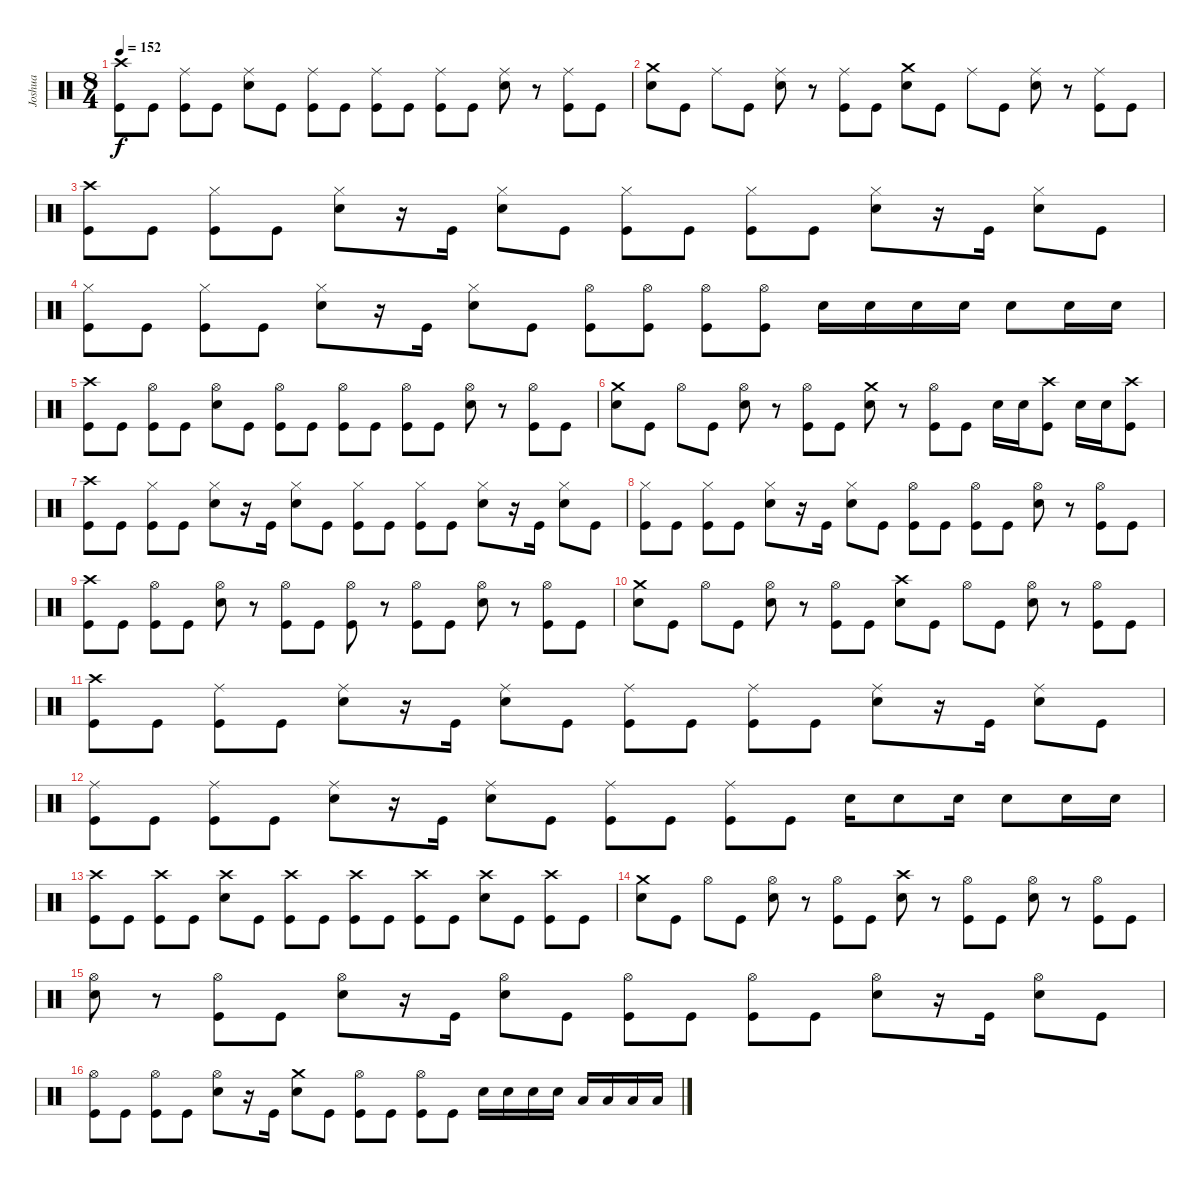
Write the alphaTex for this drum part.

\track ("Joshua" "Joshua") {instrument percussion}
\staff {score}
\articulation defaults
\ts (8 4)
\tempo 152
\clef neutral
\ks c
("Crash high (hit)" "Kick (hit)").8{dy f} "Kick (hit)".8 ("Ride (middle)" "Kick (hit)").8 "Kick (hit)".8 ("Ride (middle)" "Electric Snare (hit)").8 "Kick (hit)".8 ("Ride (middle)" "Kick (hit)").8 "Kick (hit)".8 ("Ride (middle)" "Kick (hit)").8 "Kick (hit)".8 ("Ride (middle)" "Kick (hit)").8 "Kick (hit)".8 ("Ride (middle)" "Electric Snare (hit)").8 r.8 ("Ride (middle)" "Kick (hit)").8 "Kick (hit)".8 |
("Crash medium (hit)" "Electric Snare (hit)").8 "Kick (hit)".8 "Ride (middle)".8 "Kick (hit)".8 ("Ride (middle)" "Electric Snare (hit)").8 r.8 ("Ride (middle)" "Kick (hit)").8 "Kick (hit)".8 ("Crash medium (hit)" "Electric Snare (hit)").8 "Kick (hit)".8 "Ride (middle)".8 "Kick (hit)".8 ("Ride (middle)" "Electric Snare (hit)").8 r.8 ("Ride (middle)" "Kick (hit)").8 "Kick (hit)".8 |
("Crash high (hit)" "Kick (hit)").8 "Kick (hit)".8 ("Hi-Hat (closed)" "Kick (hit)").8 "Kick (hit)".8 ("Hi-Hat (closed)" "Electric Snare (hit)").8 r.16 "Kick (hit)".16 ("Hi-Hat (closed)" "Electric Snare (hit)").8 "Kick (hit)".8 ("Hi-Hat (closed)" "Kick (hit)").8 "Kick (hit)".8 ("Hi-Hat (closed)" "Kick (hit)").8 "Kick (hit)".8 ("Hi-Hat (closed)" "Electric Snare (hit)").8 r.16 "Kick (hit)".16 ("Hi-Hat (closed)" "Electric Snare (hit)").8 "Kick (hit)".8 |
("Hi-Hat (closed)" "Kick (hit)").8 "Kick (hit)".8 ("Hi-Hat (closed)" "Kick (hit)").8 "Kick (hit)".8 ("Hi-Hat (closed)" "Electric Snare (hit)").8 r.16 "Kick (hit)".16 ("Hi-Hat (closed)" "Electric Snare (hit)").8 "Kick (hit)".8 ("Hi-Hat (open)" "Kick (hit)").8 ("Hi-Hat (open)" "Kick (hit)").8 ("Hi-Hat (open)" "Kick (hit)").8 ("Hi-Hat (open)" "Kick (hit)").8 "Electric Snare (hit)".16 "Electric Snare (hit)".16 "Electric Snare (hit)".16 "Electric Snare (hit)".16 "Electric Snare (hit)".8 "Electric Snare (hit)".16 "Electric Snare (hit)".16 |
("Crash high (hit)" "Kick (hit)").8 "Kick (hit)".8 ("Hi-Hat (open)" "Kick (hit)").8 "Kick (hit)".8 ("Hi-Hat (open)" "Electric Snare (hit)").8 "Kick (hit)".8 ("Hi-Hat (open)" "Kick (hit)").8 "Kick (hit)".8 ("Hi-Hat (open)" "Kick (hit)").8 "Kick (hit)".8 ("Hi-Hat (open)" "Kick (hit)").8 "Kick (hit)".8 ("Hi-Hat (open)" "Electric Snare (hit)").8 r.8 ("Hi-Hat (open)" "Kick (hit)").8 "Kick (hit)".8 |
("Crash medium (hit)" "Electric Snare (hit)").8 "Kick (hit)".8 "Hi-Hat (open)".8 "Kick (hit)".8 ("Hi-Hat (open)" "Electric Snare (hit)").8 r.8 ("Hi-Hat (open)" "Kick (hit)").8 "Kick (hit)".8 ("Crash medium (hit)" "Electric Snare (hit)").8 r.8 ("Hi-Hat (open)" "Kick (hit)").8 "Kick (hit)".8 "Electric Snare (hit)".16 "Electric Snare (hit)".16 ("Crash high (hit)" "Kick (hit)").8 "Electric Snare (hit)".16 "Electric Snare (hit)".16 ("Crash high (hit)" "Kick (hit)").8 |
("Crash high (hit)" "Kick (hit)").8 "Kick (hit)".8 ("Hi-Hat (closed)" "Kick (hit)").8 "Kick (hit)".8 ("Hi-Hat (closed)" "Electric Snare (hit)").8 r.16 "Kick (hit)".16 ("Hi-Hat (closed)" "Electric Snare (hit)").8 "Kick (hit)".8 ("Hi-Hat (closed)" "Kick (hit)").8 "Kick (hit)".8 ("Hi-Hat (closed)" "Kick (hit)").8 "Kick (hit)".8 ("Hi-Hat (closed)" "Electric Snare (hit)").8 r.16 "Kick (hit)".16 ("Hi-Hat (closed)" "Electric Snare (hit)").8 "Kick (hit)".8 |
("Hi-Hat (closed)" "Kick (hit)").8 "Kick (hit)".8 ("Hi-Hat (closed)" "Kick (hit)").8 "Kick (hit)".8 ("Hi-Hat (closed)" "Electric Snare (hit)").8 r.16 "Kick (hit)".16 ("Hi-Hat (closed)" "Electric Snare (hit)").8 "Kick (hit)".8 ("Hi-Hat (open)" "Kick (hit)").8 "Kick (hit)".8 ("Hi-Hat (open)" "Kick (hit)").8 "Kick (hit)".8 ("Hi-Hat (open)" "Electric Snare (hit)").8 r.8 ("Hi-Hat (open)" "Kick (hit)").8 "Kick (hit)".8 |
("Crash high (hit)" "Kick (hit)").8 "Kick (hit)".8 ("Hi-Hat (open)" "Kick (hit)").8 "Kick (hit)".8 ("Hi-Hat (open)" "Electric Snare (hit)").8 r.8 ("Hi-Hat (open)" "Kick (hit)").8 "Kick (hit)".8 ("Hi-Hat (open)" "Kick (hit)").8 r.8 ("Hi-Hat (open)" "Kick (hit)").8 "Kick (hit)".8 ("Hi-Hat (open)" "Electric Snare (hit)").8 r.8 ("Hi-Hat (open)" "Kick (hit)").8 "Kick (hit)".8 |
("Crash medium (hit)" "Electric Snare (hit)").8 "Kick (hit)".8 "Hi-Hat (open)".8 "Kick (hit)".8 ("Hi-Hat (open)" "Electric Snare (hit)").8 r.8 ("Hi-Hat (open)" "Kick (hit)").8 "Kick (hit)".8 ("Crash high (hit)" "Electric Snare (hit)").8 "Kick (hit)".8 "Hi-Hat (open)".8 "Kick (hit)".8 ("Hi-Hat (open)" "Electric Snare (hit)").8 r.8 ("Hi-Hat (open)" "Kick (hit)").8 "Kick (hit)".8 |
("Crash high (hit)" "Kick (hit)").8 "Kick (hit)".8 ("Ride (middle)" "Kick (hit)").8 "Kick (hit)".8 ("Ride (middle)" "Electric Snare (hit)").8 r.16 "Kick (hit)".16 ("Ride (middle)" "Electric Snare (hit)").8 "Kick (hit)".8 ("Ride (middle)" "Kick (hit)").8 "Kick (hit)".8 ("Ride (middle)" "Kick (hit)").8 "Kick (hit)".8 ("Ride (middle)" "Electric Snare (hit)").8 r.16 "Kick (hit)".16 ("Ride (middle)" "Electric Snare (hit)").8 "Kick (hit)".8 |
("Ride (middle)" "Kick (hit)").8 "Kick (hit)".8 ("Ride (middle)" "Kick (hit)").8 "Kick (hit)".8 ("Ride (middle)" "Electric Snare (hit)").8 r.16 "Kick (hit)".16 ("Ride (middle)" "Electric Snare (hit)").8 "Kick (hit)".8 ("Ride (middle)" "Kick (hit)").8 "Kick (hit)".8 ("Ride (middle)" "Kick (hit)").8 "Kick (hit)".8 "Electric Snare (hit)".16 "Electric Snare (hit)".8 "Electric Snare (hit)".16 "Electric Snare (hit)".8 "Electric Snare (hit)".16 "Electric Snare (hit)".16 |
("Crash high (hit)" "Kick (hit)").8 "Kick (hit)".8 ("Crash high (hit)" "Kick (hit)").8 "Kick (hit)".8 ("Crash high (hit)" "Electric Snare (hit)").8 "Kick (hit)".8 ("Crash high (hit)" "Kick (hit)").8 "Kick (hit)".8 ("Crash high (hit)" "Kick (hit)").8 "Kick (hit)".8 ("Crash high (hit)" "Kick (hit)").8 "Kick (hit)".8 ("Crash high (hit)" "Electric Snare (hit)").8 "Kick (hit)".8 ("Crash high (hit)" "Kick (hit)").8 "Kick (hit)".8 |
("Crash medium (hit)" "Electric Snare (hit)").8 "Kick (hit)".8 "Hi-Hat (open)".8 "Kick (hit)".8 ("Hi-Hat (open)" "Electric Snare (hit)").8 r.8 ("Hi-Hat (open)" "Kick (hit)").8 "Kick (hit)".8 ("Crash high (hit)" "Electric Snare (hit)").8 r.8 ("Hi-Hat (open)" "Kick (hit)").8 "Kick (hit)".8 ("Hi-Hat (open)" "Electric Snare (hit)").8 r.8 ("Hi-Hat (open)" "Kick (hit)").8 "Kick (hit)".8 |
("Hi-Hat (open)" "Electric Snare (hit)").8 r.8 ("Hi-Hat (open)" "Kick (hit)").8 "Kick (hit)".8 ("Hi-Hat (open)" "Electric Snare (hit)").8 r.16 "Kick (hit)".16 ("Hi-Hat (open)" "Electric Snare (hit)").8 "Kick (hit)".8 ("Hi-Hat (open)" "Kick (hit)").8 "Kick (hit)".8 ("Hi-Hat (open)" "Kick (hit)").8 "Kick (hit)".8 ("Hi-Hat (open)" "Electric Snare (hit)").8 r.16 "Kick (hit)".16 ("Hi-Hat (open)" "Electric Snare (hit)").8 "Kick (hit)".8 |
("Hi-Hat (open)" "Kick (hit)").8 "Kick (hit)".8 ("Hi-Hat (open)" "Kick (hit)").8 "Kick (hit)".8 ("Hi-Hat (open)" "Electric Snare (hit)").8 r.16 "Kick (hit)".16 ("Crash medium (hit)" "Electric Snare (hit)").8 "Kick (hit)".8 ("Hi-Hat (open)" "Kick (hit)").8 "Kick (hit)".8 ("Hi-Hat (open)" "Kick (hit)").8 "Kick (hit)".8 "Electric Snare (hit)".16 "Electric Snare (hit)".16 "Electric Snare (hit)".16 "Electric Snare (hit)".16 "Low Tom (hit)".16 "Low Tom (hit)".16 "Low Floor Tom (hit)".16 "Low Floor Tom (hit)".16
